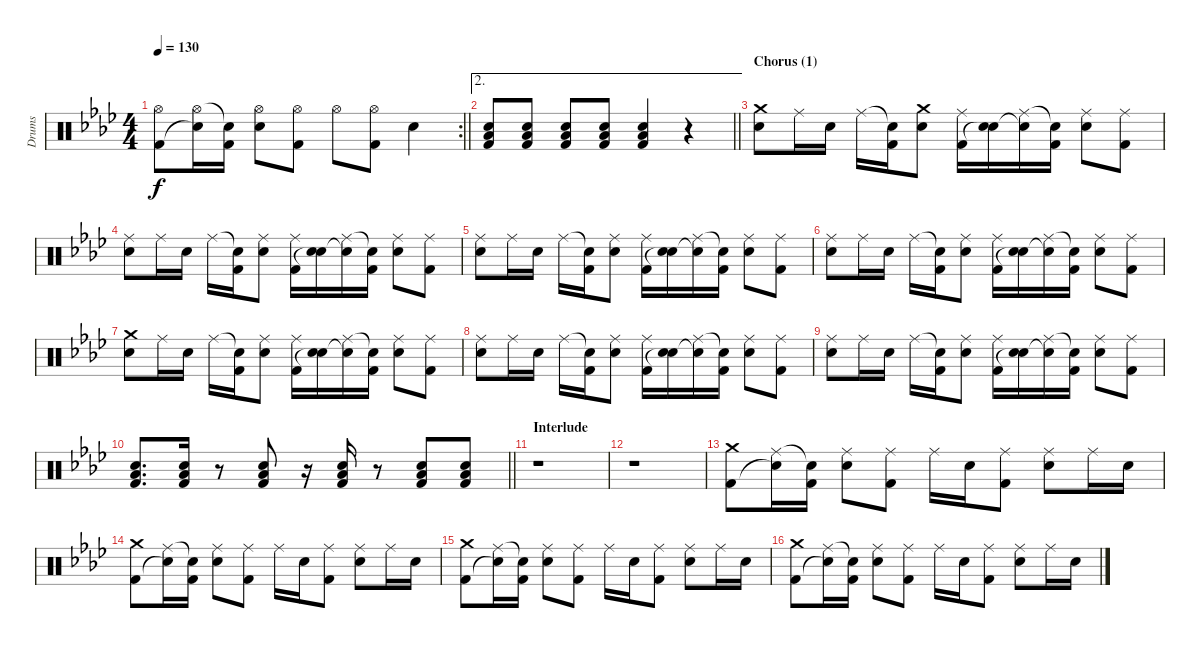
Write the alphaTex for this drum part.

\track ("Drums" "Drums") {instrument percussion}
\staff {score}
\articulation defaults
\rc 2
\ts (4 4)
\tempo 130
\clef neutral
\barLineRight lightlight
\ks fminor
("Hi-Hat (open)" "Kick (hit) 2").8{dy f} ("Hi-Hat (open)" "Snare (hit)"{t}).16 ("Snare (hit)"{t} "Kick (hit) 2").16 ("Hi-Hat (open)" "Electric Snare (hit)").8 ("Hi-Hat (open)" "Kick (hit) 2").8 "Hi-Hat (open)".8 ("Hi-Hat (open)" "Kick (hit) 2").8 "Electric Snare (hit)".4 |
\ae 2
\barLineRight lightlight
("Electric Snare (hit)" "Low Floor Tom (hit)" "Kick (hit) 2").8 ("Electric Snare (hit)" "Low Floor Tom (hit)" "Kick (hit) 2").8 ("Electric Snare (hit)" "Low Floor Tom (hit)" "Kick (hit) 2").8 ("Electric Snare (hit)" "Low Floor Tom (hit)" "Kick (hit) 2").8 ("Electric Snare (hit)" "Low Floor Tom (hit)" "Kick (hit) 2").4 r.4 |
\section ("" "Chorus (1)")
("Crash medium (hit)" "Electric Snare (hit)").8 "Ride (middle)".16 "Electric Snare (hit)".16 "Ride (middle)".16 ("Snare (hit)"{t} "Kick (hit) 2").16 ("Crash medium (hit)" "Electric Snare (hit)").8 ("Ride (middle)" "Kick (hit) 2").16 ("Electric Snare (hit)" "Snare (hit)"{t}).16 ("Ride (middle)" "Snare (hit)"{t}).16 ("Snare (hit)"{t} "Kick (hit) 2").16 ("Ride (middle)" "Electric Snare (hit)").8 ("Ride (middle)" "Kick (hit) 2").8 |
("Ride (middle)" "Electric Snare (hit)").8 "Ride (middle)".16 "Electric Snare (hit)".16 "Ride (middle)".16 ("Snare (hit)"{t} "Kick (hit) 2").16 ("Ride (middle)" "Electric Snare (hit)").8 ("Ride (middle)" "Kick (hit) 2").16 ("Electric Snare (hit)" "Snare (hit)"{t}).16 ("Ride (middle)" "Snare (hit)"{t}).16 ("Snare (hit)"{t} "Kick (hit) 2").16 ("Ride (middle)" "Electric Snare (hit)").8 ("Ride (middle)" "Kick (hit) 2").8 |
("Ride (middle)" "Electric Snare (hit)").8 "Ride (middle)".16 "Electric Snare (hit)".16 "Ride (middle)".16 ("Snare (hit)"{t} "Kick (hit) 2").16 ("Ride (middle)" "Electric Snare (hit)").8 ("Ride (middle)" "Kick (hit) 2").16 ("Electric Snare (hit)" "Snare (hit)"{t}).16 ("Ride (middle)" "Snare (hit)"{t}).16 ("Snare (hit)"{t} "Kick (hit) 2").16 ("Ride (middle)" "Electric Snare (hit)").8 ("Ride (middle)" "Kick (hit) 2").8 |
("Ride (middle)" "Electric Snare (hit)").8 "Ride (middle)".16 "Electric Snare (hit)".16 "Ride (middle)".16 ("Snare (hit)"{t} "Kick (hit) 2").16 ("Ride (middle)" "Electric Snare (hit)").8 ("Ride (middle)" "Kick (hit) 2").16 ("Electric Snare (hit)" "Snare (hit)"{t}).16 ("Ride (middle)" "Snare (hit)"{t}).16 ("Snare (hit)"{t} "Kick (hit) 2").16 ("Ride (middle)" "Electric Snare (hit)").8 ("Ride (middle)" "Kick (hit) 2").8 |
("Crash medium (hit)" "Electric Snare (hit)").8 "Ride (middle)".16 "Electric Snare (hit)".16 "Ride (middle)".16 ("Snare (hit)"{t} "Kick (hit) 2").16 ("Ride (middle)" "Electric Snare (hit)").8 ("Ride (middle)" "Kick (hit) 2").16 ("Electric Snare (hit)" "Snare (hit)"{t}).16 ("Ride (middle)" "Snare (hit)"{t}).16 ("Snare (hit)"{t} "Kick (hit) 2").16 ("Ride (middle)" "Electric Snare (hit)").8 ("Ride (middle)" "Kick (hit) 2").8 |
("Ride (middle)" "Electric Snare (hit)").8 "Ride (middle)".16 "Electric Snare (hit)".16 "Ride (middle)".16 ("Snare (hit)"{t} "Kick (hit) 2").16 ("Ride (middle)" "Electric Snare (hit)").8 ("Ride (middle)" "Kick (hit) 2").16 ("Electric Snare (hit)" "Snare (hit)"{t}).16 ("Ride (middle)" "Snare (hit)"{t}).16 ("Snare (hit)"{t} "Kick (hit) 2").16 ("Ride (middle)" "Electric Snare (hit)").8 ("Ride (middle)" "Kick (hit) 2").8 |
("Ride (middle)" "Electric Snare (hit)").8 "Ride (middle)".16 "Electric Snare (hit)".16 "Ride (middle)".16 ("Snare (hit)"{t} "Kick (hit) 2").16 ("Ride (middle)" "Electric Snare (hit)").8 ("Ride (middle)" "Kick (hit) 2").16 ("Electric Snare (hit)" "Snare (hit)"{t}).16 ("Ride (middle)" "Snare (hit)"{t}).16 ("Snare (hit)"{t} "Kick (hit) 2").16 ("Ride (middle)" "Electric Snare (hit)").8 ("Ride (middle)" "Kick (hit) 2").8 |
\barLineRight lightlight
("Electric Snare (hit)" "Low Floor Tom (hit)" "Kick (hit) 2").8{d} ("Electric Snare (hit)" "Low Floor Tom (hit)" "Kick (hit) 2").16 r.8 ("Electric Snare (hit)" "Low Floor Tom (hit)" "Kick (hit) 2").8 r.16 ("Electric Snare (hit)" "Low Floor Tom (hit)" "Kick (hit) 2").16 r.8 ("Electric Snare (hit)" "Low Floor Tom (hit)" "Kick (hit) 2").8 ("Electric Snare (hit)" "Low Floor Tom (hit)" "Kick (hit) 2").8 |
\section ("" "Interlude")
r.1 |
r.1 |
("Crash medium (hit)" "Kick (hit) 2").8 ("Ride (middle)" "Snare (hit)"{t}).16 ("Snare (hit)"{t} "Kick (hit) 2").16 ("Ride (middle)" "Electric Snare (hit)").8 ("Ride (middle)" "Kick (hit) 2").8 "Ride (middle)".16 "Electric Snare (hit)".16 ("Ride (middle)" "Kick (hit) 2").8 ("Ride (middle)" "Electric Snare (hit)").8 "Ride (middle)".16 "Electric Snare (hit)".16 |
("Crash medium (hit)" "Kick (hit) 2").8 ("Ride (middle)" "Snare (hit)"{t}).16 ("Snare (hit)"{t} "Kick (hit) 2").16 ("Ride (middle)" "Electric Snare (hit)").8 ("Ride (middle)" "Kick (hit) 2").8 "Ride (middle)".16 "Electric Snare (hit)".16 ("Ride (middle)" "Kick (hit) 2").8 ("Ride (middle)" "Electric Snare (hit)").8 "Ride (middle)".16 "Electric Snare (hit)".16 |
("Crash medium (hit)" "Kick (hit) 2").8 ("Ride (middle)" "Snare (hit)"{t}).16 ("Snare (hit)"{t} "Kick (hit) 2").16 ("Ride (middle)" "Electric Snare (hit)").8 ("Ride (middle)" "Kick (hit) 2").8 "Ride (middle)".16 "Electric Snare (hit)".16 ("Ride (middle)" "Kick (hit) 2").8 ("Ride (middle)" "Electric Snare (hit)").8 "Ride (middle)".16 "Electric Snare (hit)".16 |
("Crash medium (hit)" "Kick (hit) 2").8 ("Ride (middle)" "Snare (hit)"{t}).16 ("Snare (hit)"{t} "Kick (hit) 2").16 ("Ride (middle)" "Electric Snare (hit)").8 ("Ride (middle)" "Kick (hit) 2").8 "Ride (middle)".16 "Electric Snare (hit)".16 ("Ride (middle)" "Kick (hit) 2").8 ("Ride (middle)" "Electric Snare (hit)").8 "Ride (middle)".16 "Electric Snare (hit)".16
